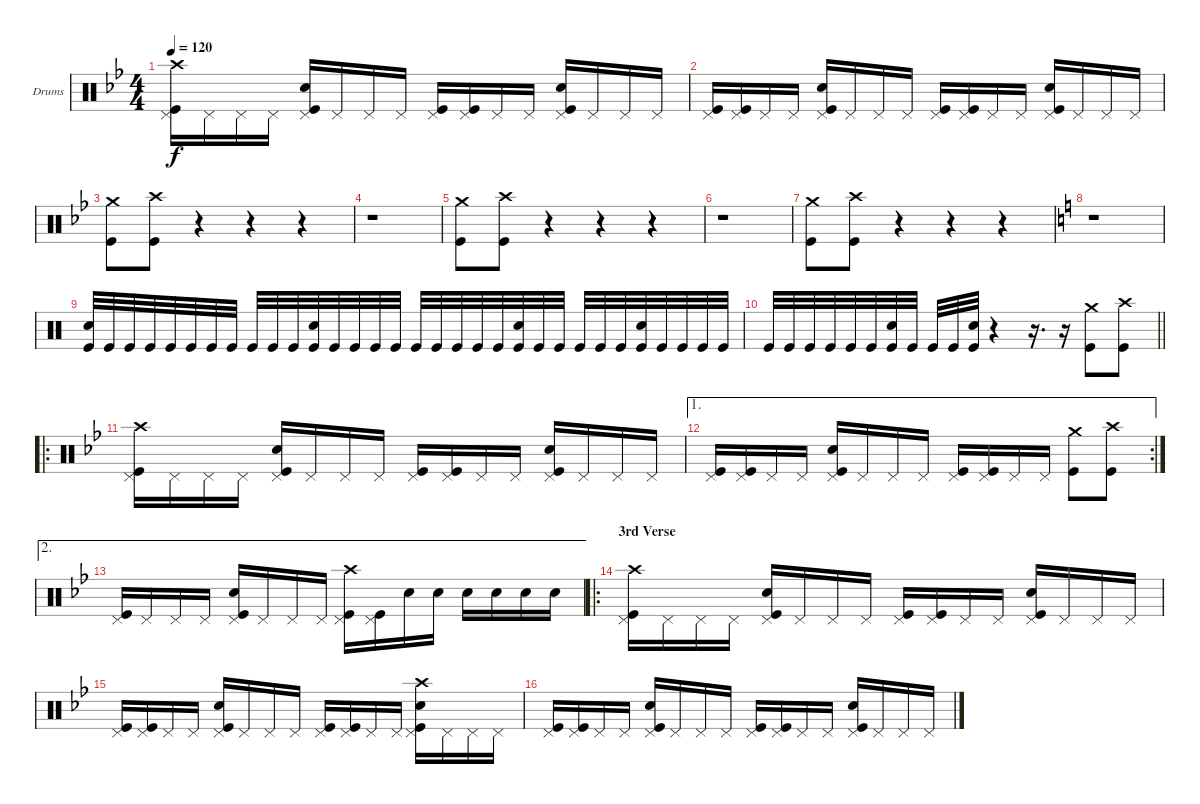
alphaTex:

\bracketExtendMode groupsimilarinstruments
\firstSystemTrackNameOrientation horizontal
\otherSystemsTrackNameOrientation horizontal
\track ("Drumkit" "Drums") {instrument percussion}
\staff {score}
\articulation defaults
\ts (4 4)
\tempo 120
\clef neutral
\ks bb
("Crash high (hit)" "Pedal Hi-Hat (hit)" "Kick (hit)").16{dy f} "Pedal Hi-Hat (hit)".16 "Pedal Hi-Hat (hit)".16 "Pedal Hi-Hat (hit)".16 ("Snare (hit) 2" "Pedal Hi-Hat (hit)" "Kick (hit)").16 "Pedal Hi-Hat (hit)".16 "Pedal Hi-Hat (hit)".16 "Pedal Hi-Hat (hit)".16 ("Pedal Hi-Hat (hit)" "Kick (hit)").16 ("Pedal Hi-Hat (hit)" "Kick (hit)").16 "Pedal Hi-Hat (hit)".16 "Pedal Hi-Hat (hit)".16 ("Snare (hit) 2" "Pedal Hi-Hat (hit)" "Kick (hit)").16 "Pedal Hi-Hat (hit)".16 "Pedal Hi-Hat (hit)".16 "Pedal Hi-Hat (hit)".16 |
("Pedal Hi-Hat (hit)" "Kick (hit)").16 ("Pedal Hi-Hat (hit)" "Kick (hit)").16 "Pedal Hi-Hat (hit)".16 "Pedal Hi-Hat (hit)".16 ("Snare (hit) 2" "Pedal Hi-Hat (hit)" "Kick (hit)").16 "Pedal Hi-Hat (hit)".16 "Pedal Hi-Hat (hit)".16 "Pedal Hi-Hat (hit)".16 ("Pedal Hi-Hat (hit)" "Kick (hit)").16 ("Pedal Hi-Hat (hit)" "Kick (hit)").16 "Pedal Hi-Hat (hit)".16 "Pedal Hi-Hat (hit)".16 ("Snare (hit) 2" "Pedal Hi-Hat (hit)" "Kick (hit)").16 "Pedal Hi-Hat (hit)".16 "Pedal Hi-Hat (hit)".16 "Pedal Hi-Hat (hit)".16 |
("Crash medium (hit)" "Kick (hit)").8 ("Crash high (hit)" "Kick (hit)").8 r.4 r.4 r.4 |
r.1 |
("Crash medium (hit)" "Kick (hit)").8 ("Crash high (hit)" "Kick (hit)").8 r.4 r.4 r.4 |
r.1 |
("Crash medium (hit)" "Kick (hit)").8 ("Crash high (hit)" "Kick (hit)").8 r.4 r.4 r.4 |
\ks c
r.1 |
("Snare (hit) 2" "Kick (hit)").32 "Kick (hit)".32 "Kick (hit)".32 "Kick (hit)".32 "Kick (hit)".32 "Kick (hit)".32 "Kick (hit)".32 "Kick (hit)".32 "Kick (hit)".32 "Kick (hit)".32 "Kick (hit)".32 ("Snare (hit) 2" "Kick (hit)").32 "Kick (hit)".32 "Kick (hit)".32 "Kick (hit)".32 "Kick (hit)".32 "Kick (hit)".32 "Kick (hit)".32 "Kick (hit)".32 "Kick (hit)".32 "Kick (hit)".32 ("Snare (hit) 2" "Kick (hit)").32 "Kick (hit)".32 "Kick (hit)".32 "Kick (hit)".32 "Kick (hit)".32 "Kick (hit)".32 ("Snare (hit) 2" "Kick (hit)").32 "Kick (hit)".32 "Kick (hit)".32 "Kick (hit)".32 "Kick (hit)".32 |
\barLineRight lightlight "Kick (hit)".32 "Kick (hit)".32 "Kick (hit)".32 "Kick (hit)".32 "Kick (hit)".32 "Kick (hit)".32
("Snare (hit) 2" "Kick (hit)").32 "Kick (hit)".32 "Kick (hit)".32 "Kick (hit)".32 ("Snare (hit) 2" "Kick (hit)").32 r.4 r.16{d} r.16 ("Crash medium (hit)" "Kick (hit)").8 ("Crash high (hit)" "Kick (hit)").8 |
\ro
\ks bb
("Crash high (hit)" "Pedal Hi-Hat (hit)" "Kick (hit)").16 "Pedal Hi-Hat (hit)".16 "Pedal Hi-Hat (hit)".16 "Pedal Hi-Hat (hit)".16 ("Snare (hit) 2" "Pedal Hi-Hat (hit)" "Kick (hit)").16 "Pedal Hi-Hat (hit)".16 "Pedal Hi-Hat (hit)".16 "Pedal Hi-Hat (hit)".16 ("Pedal Hi-Hat (hit)" "Kick (hit)").16 ("Pedal Hi-Hat (hit)" "Kick (hit)").16 "Pedal Hi-Hat (hit)".16 "Pedal Hi-Hat (hit)".16 ("Snare (hit) 2" "Pedal Hi-Hat (hit)" "Kick (hit)").16 "Pedal Hi-Hat (hit)".16 "Pedal Hi-Hat (hit)".16 "Pedal Hi-Hat (hit)".16 |
\ae 1
\rc 2
("Pedal Hi-Hat (hit)" "Kick (hit)").16 ("Pedal Hi-Hat (hit)" "Kick (hit)").16 "Pedal Hi-Hat (hit)".16 "Pedal Hi-Hat (hit)".16 ("Snare (hit) 2" "Pedal Hi-Hat (hit)" "Kick (hit)").16 "Pedal Hi-Hat (hit)".16 "Pedal Hi-Hat (hit)".16 "Pedal Hi-Hat (hit)".16 ("Pedal Hi-Hat (hit)" "Kick (hit)").16 ("Pedal Hi-Hat (hit)" "Kick (hit)").16 "Pedal Hi-Hat (hit)".16 "Pedal Hi-Hat (hit)".16 ("Crash medium (hit)" "Kick (hit)").8 ("Crash high (hit)" "Kick (hit)").8 |
\ae 2
("Pedal Hi-Hat (hit)" "Kick (hit)").16 "Pedal Hi-Hat (hit)".16 "Pedal Hi-Hat (hit)".16 "Pedal Hi-Hat (hit)".16 ("Snare (hit) 2" "Pedal Hi-Hat (hit)" "Kick (hit)").16 "Pedal Hi-Hat (hit)".16 "Pedal Hi-Hat (hit)".16 "Pedal Hi-Hat (hit)".16 ("Crash high (hit)" "Pedal Hi-Hat (hit)" "Kick (hit)").16 ("Pedal Hi-Hat (hit)" "Kick (hit)").16 "Snare (hit) 2".16 "Snare (hit) 2".16 "Snare (hit) 2".16 "Snare (hit) 2".16 "Snare (hit) 2".16 "Snare (hit) 2".16 |
\ro
\section ("" "3rd Verse")
("Crash high (hit)" "Pedal Hi-Hat (hit)" "Kick (hit)").16 "Pedal Hi-Hat (hit)".16 "Pedal Hi-Hat (hit)".16 "Pedal Hi-Hat (hit)".16 ("Snare (hit) 2" "Pedal Hi-Hat (hit)" "Kick (hit)").16 "Pedal Hi-Hat (hit)".16 "Pedal Hi-Hat (hit)".16 "Pedal Hi-Hat (hit)".16 ("Pedal Hi-Hat (hit)" "Kick (hit)").16 ("Pedal Hi-Hat (hit)" "Kick (hit)").16 "Pedal Hi-Hat (hit)".16 "Pedal Hi-Hat (hit)".16 ("Snare (hit) 2" "Pedal Hi-Hat (hit)" "Kick (hit)").16 "Pedal Hi-Hat (hit)".16 "Pedal Hi-Hat (hit)".16 "Pedal Hi-Hat (hit)".16 |
("Pedal Hi-Hat (hit)" "Kick (hit)").16 ("Pedal Hi-Hat (hit)" "Kick (hit)").16 "Pedal Hi-Hat (hit)".16 "Pedal Hi-Hat (hit)".16 ("Snare (hit) 2" "Pedal Hi-Hat (hit)" "Kick (hit)").16 "Pedal Hi-Hat (hit)".16 "Pedal Hi-Hat (hit)".16 "Pedal Hi-Hat (hit)".16 ("Pedal Hi-Hat (hit)" "Kick (hit)").16 ("Pedal Hi-Hat (hit)" "Kick (hit)").16 "Pedal Hi-Hat (hit)".16 "Pedal Hi-Hat (hit)".16 ("Crash high (hit)" "Snare (hit) 2" "Pedal Hi-Hat (hit)" "Kick (hit)").16 "Pedal Hi-Hat (hit)".16 "Pedal Hi-Hat (hit)".16 "Pedal Hi-Hat (hit)".16 |
("Pedal Hi-Hat (hit)" "Kick (hit)").16 ("Pedal Hi-Hat (hit)" "Kick (hit)").16 "Pedal Hi-Hat (hit)".16 "Pedal Hi-Hat (hit)".16 ("Snare (hit) 2" "Pedal Hi-Hat (hit)" "Kick (hit)").16 "Pedal Hi-Hat (hit)".16 "Pedal Hi-Hat (hit)".16 "Pedal Hi-Hat (hit)".16 ("Pedal Hi-Hat (hit)" "Kick (hit)").16 ("Pedal Hi-Hat (hit)" "Kick (hit)").16 "Pedal Hi-Hat (hit)".16 "Pedal Hi-Hat (hit)".16 ("Snare (hit) 2" "Pedal Hi-Hat (hit)" "Kick (hit)").16 "Pedal Hi-Hat (hit)".16 "Pedal Hi-Hat (hit)".16 "Pedal Hi-Hat (hit)".16
